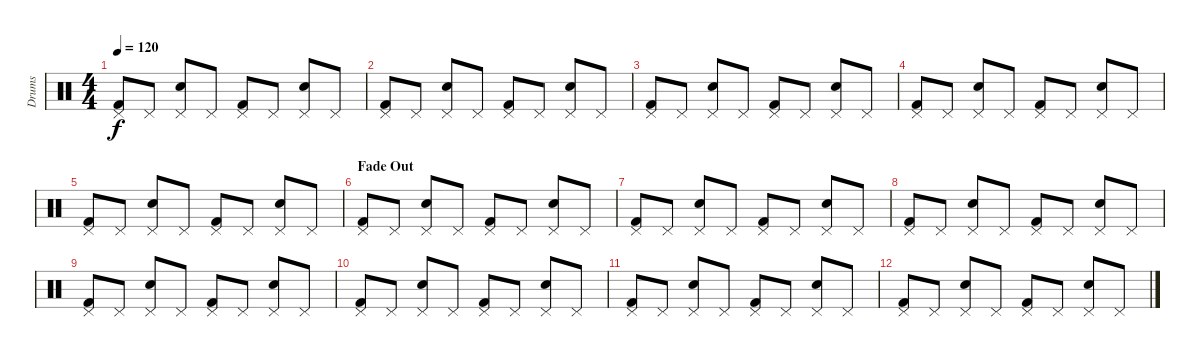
\track ("Drums" "Drums") {instrument percussion}
\staff {score}
\articulation defaults
\ts (4 4)
\tempo 120
\clef neutral
\ks c
("Pedal Hi-Hat (hit)" "Kick (hit) 2").8{dy f} "Pedal Hi-Hat (hit)".8 ("Pedal Hi-Hat (hit)" "Snare (hit) 2").8 "Pedal Hi-Hat (hit)".8 ("Pedal Hi-Hat (hit)" "Kick (hit) 2").8 "Pedal Hi-Hat (hit)".8 ("Pedal Hi-Hat (hit)" "Snare (hit) 2").8 "Pedal Hi-Hat (hit)".8 |
("Pedal Hi-Hat (hit)" "Kick (hit) 2").8 "Pedal Hi-Hat (hit)".8 ("Pedal Hi-Hat (hit)" "Snare (hit) 2").8 "Pedal Hi-Hat (hit)".8 ("Pedal Hi-Hat (hit)" "Kick (hit) 2").8 "Pedal Hi-Hat (hit)".8 ("Pedal Hi-Hat (hit)" "Snare (hit) 2").8 "Pedal Hi-Hat (hit)".8 |
("Pedal Hi-Hat (hit)" "Kick (hit) 2").8 "Pedal Hi-Hat (hit)".8 ("Pedal Hi-Hat (hit)" "Snare (hit) 2").8 "Pedal Hi-Hat (hit)".8 ("Pedal Hi-Hat (hit)" "Kick (hit) 2").8 "Pedal Hi-Hat (hit)".8 ("Pedal Hi-Hat (hit)" "Snare (hit) 2").8 "Pedal Hi-Hat (hit)".8 |
("Pedal Hi-Hat (hit)" "Kick (hit) 2").8 "Pedal Hi-Hat (hit)".8 ("Pedal Hi-Hat (hit)" "Snare (hit) 2").8 "Pedal Hi-Hat (hit)".8 ("Pedal Hi-Hat (hit)" "Kick (hit) 2").8 "Pedal Hi-Hat (hit)".8 ("Pedal Hi-Hat (hit)" "Snare (hit) 2").8 "Pedal Hi-Hat (hit)".8 |
("Pedal Hi-Hat (hit)" "Kick (hit) 2").8 "Pedal Hi-Hat (hit)".8 ("Pedal Hi-Hat (hit)" "Snare (hit) 2").8 "Pedal Hi-Hat (hit)".8 ("Pedal Hi-Hat (hit)" "Kick (hit) 2").8 "Pedal Hi-Hat (hit)".8 ("Pedal Hi-Hat (hit)" "Snare (hit) 2").8 "Pedal Hi-Hat (hit)".8 |
\section ("" "Fade Out")
("Pedal Hi-Hat (hit)" "Kick (hit) 2").8 "Pedal Hi-Hat (hit)".8 ("Pedal Hi-Hat (hit)" "Snare (hit) 2").8 "Pedal Hi-Hat (hit)".8 ("Pedal Hi-Hat (hit)" "Kick (hit) 2").8 "Pedal Hi-Hat (hit)".8 ("Pedal Hi-Hat (hit)" "Snare (hit) 2").8 "Pedal Hi-Hat (hit)".8 |
("Pedal Hi-Hat (hit)" "Kick (hit) 2").8 "Pedal Hi-Hat (hit)".8 ("Pedal Hi-Hat (hit)" "Snare (hit) 2").8 "Pedal Hi-Hat (hit)".8 ("Pedal Hi-Hat (hit)" "Kick (hit) 2").8 "Pedal Hi-Hat (hit)".8 ("Pedal Hi-Hat (hit)" "Snare (hit) 2").8 "Pedal Hi-Hat (hit)".8 |
("Pedal Hi-Hat (hit)" "Kick (hit) 2").8 "Pedal Hi-Hat (hit)".8 ("Pedal Hi-Hat (hit)" "Snare (hit) 2").8 "Pedal Hi-Hat (hit)".8 ("Pedal Hi-Hat (hit)" "Kick (hit) 2").8 "Pedal Hi-Hat (hit)".8 ("Pedal Hi-Hat (hit)" "Snare (hit) 2").8 "Pedal Hi-Hat (hit)".8 |
("Pedal Hi-Hat (hit)" "Kick (hit) 2").8 "Pedal Hi-Hat (hit)".8 ("Pedal Hi-Hat (hit)" "Snare (hit) 2").8 "Pedal Hi-Hat (hit)".8 ("Pedal Hi-Hat (hit)" "Kick (hit) 2").8 "Pedal Hi-Hat (hit)".8 ("Pedal Hi-Hat (hit)" "Snare (hit) 2").8 "Pedal Hi-Hat (hit)".8 |
("Pedal Hi-Hat (hit)" "Kick (hit) 2").8 "Pedal Hi-Hat (hit)".8 ("Pedal Hi-Hat (hit)" "Snare (hit) 2").8 "Pedal Hi-Hat (hit)".8 ("Pedal Hi-Hat (hit)" "Kick (hit) 2").8 "Pedal Hi-Hat (hit)".8 ("Pedal Hi-Hat (hit)" "Snare (hit) 2").8 "Pedal Hi-Hat (hit)".8 |
("Pedal Hi-Hat (hit)" "Kick (hit) 2").8 "Pedal Hi-Hat (hit)".8 ("Pedal Hi-Hat (hit)" "Snare (hit) 2").8 "Pedal Hi-Hat (hit)".8 ("Pedal Hi-Hat (hit)" "Kick (hit) 2").8 "Pedal Hi-Hat (hit)".8 ("Pedal Hi-Hat (hit)" "Snare (hit) 2").8 "Pedal Hi-Hat (hit)".8 |
("Pedal Hi-Hat (hit)" "Kick (hit) 2").8 "Pedal Hi-Hat (hit)".8 ("Pedal Hi-Hat (hit)" "Snare (hit) 2").8 "Pedal Hi-Hat (hit)".8 ("Pedal Hi-Hat (hit)" "Kick (hit) 2").8 "Pedal Hi-Hat (hit)".8 ("Pedal Hi-Hat (hit)" "Snare (hit) 2").8 "Pedal Hi-Hat (hit)".8
